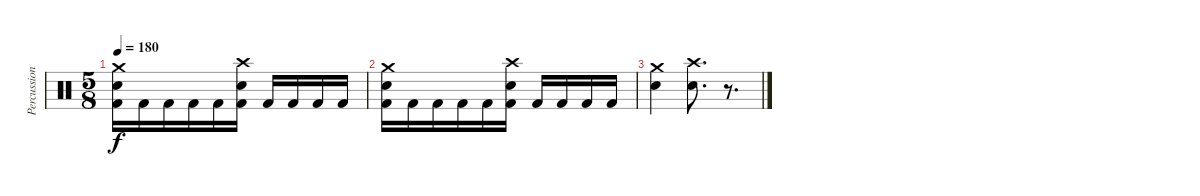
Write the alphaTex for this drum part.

\track ("Percussion" "Percussion") {instrument percussion}
\staff {score}
\articulation defaults
\ts (5 8)
\tempo 180
\clef neutral
\ks c
("Crash medium (hit)" "Electric Snare (hit)" "Kick (hit) 2").16{dy f} "Kick (hit) 2".16 "Kick (hit) 2".16 "Kick (hit) 2".16 "Kick (hit) 2".16 ("Crash high (hit)" "Electric Snare (hit)" "Kick (hit) 2").16 "Kick (hit) 2".16 "Kick (hit) 2".16 "Kick (hit) 2".16 "Kick (hit) 2".16 |
("Crash medium (hit)" "Electric Snare (hit)" "Kick (hit) 2").16 "Kick (hit) 2".16 "Kick (hit) 2".16 "Kick (hit) 2".16 "Kick (hit) 2".16 ("Crash high (hit)" "Electric Snare (hit)" "Kick (hit) 2").16 "Kick (hit) 2".16 "Kick (hit) 2".16 "Kick (hit) 2".16 "Kick (hit) 2".16 |
("Crash medium (hit)" "Electric Snare (hit)").4 ("Crash high (hit)" "Electric Snare (hit)").8{d} r.8{d}
